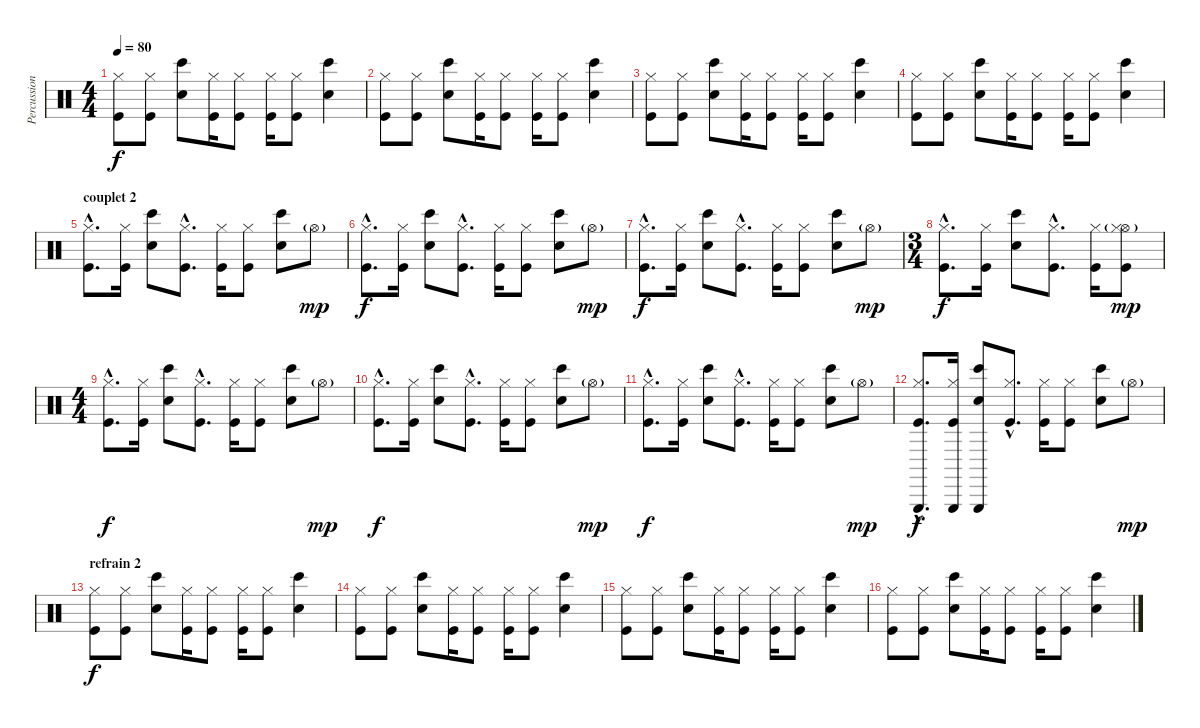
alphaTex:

\track ("Percussions" "Percussion") {instrument percussion}
\staff {score}
\articulation defaults
\ts (4 4)
\tempo 80
\clef neutral
\ks c
("Hi-Hat (closed)" "Kick (hit)").8{dy f} ("Hi-Hat (closed)" "Kick (hit)").8 ("Electric Snare (hit)" "Bongo High (hit)").8 ("Hi-Hat (closed)" "Kick (hit)").16 ("Hi-Hat (closed)" "Kick (hit)").8 ("Hi-Hat (closed)" "Kick (hit)").16 ("Hi-Hat (closed)" "Kick (hit)").8 ("Electric Snare (hit)" "Bongo High (hit)").4 |
("Hi-Hat (closed)" "Kick (hit)").8 ("Hi-Hat (closed)" "Kick (hit)").8 ("Electric Snare (hit)" "Bongo High (hit)").8 ("Hi-Hat (closed)" "Kick (hit)").16 ("Hi-Hat (closed)" "Kick (hit)").8 ("Hi-Hat (closed)" "Kick (hit)").16 ("Hi-Hat (closed)" "Kick (hit)").8 ("Electric Snare (hit)" "Bongo High (hit)").4 |
("Hi-Hat (closed)" "Kick (hit)").8 ("Hi-Hat (closed)" "Kick (hit)").8 ("Electric Snare (hit)" "Bongo High (hit)").8 ("Hi-Hat (closed)" "Kick (hit)").16 ("Hi-Hat (closed)" "Kick (hit)").8 ("Hi-Hat (closed)" "Kick (hit)").16 ("Hi-Hat (closed)" "Kick (hit)").8 ("Electric Snare (hit)" "Bongo High (hit)").4 |
("Hi-Hat (closed)" "Kick (hit)").8 ("Hi-Hat (closed)" "Kick (hit)").8 ("Electric Snare (hit)" "Bongo High (hit)").8 ("Hi-Hat (closed)" "Kick (hit)").16 ("Hi-Hat (closed)" "Kick (hit)").8 ("Hi-Hat (closed)" "Kick (hit)").16 ("Hi-Hat (closed)" "Kick (hit)").8 ("Electric Snare (hit)" "Bongo High (hit)").4 |
\section ("" "couplet 2")
("Hi-Hat (closed)"{hac} "Kick (hit)"{hac}).8{d} ("Hi-Hat (closed)" "Kick (hit)").16 ("Electric Snare (hit)" "Bongo High (hit)").8 ("Hi-Hat (closed)"{hac} "Kick (hit)"{hac}).8{d} ("Hi-Hat (closed)" "Kick (hit)").16 ("Hi-Hat (closed)" "Kick (hit)").8 ("Electric Snare (hit)" "Bongo High (hit)").8 "Hi-Hat (open)"{g}.8{dy mp} |
("Hi-Hat (closed)"{hac} "Kick (hit)"{hac}).8{d dy f} ("Hi-Hat (closed)" "Kick (hit)").16 ("Electric Snare (hit)" "Bongo High (hit)").8 ("Hi-Hat (closed)"{hac} "Kick (hit)"{hac}).8{d} ("Hi-Hat (closed)" "Kick (hit)").16 ("Hi-Hat (closed)" "Kick (hit)").8 ("Electric Snare (hit)" "Bongo High (hit)").8 "Hi-Hat (open)"{g}.8{dy mp} |
("Hi-Hat (closed)"{hac} "Kick (hit)"{hac}).8{d dy f} ("Hi-Hat (closed)" "Kick (hit)").16 ("Electric Snare (hit)" "Bongo High (hit)").8 ("Hi-Hat (closed)"{hac} "Kick (hit)"{hac}).8{d} ("Hi-Hat (closed)" "Kick (hit)").16 ("Hi-Hat (closed)" "Kick (hit)").8 ("Electric Snare (hit)" "Bongo High (hit)").8 "Hi-Hat (open)"{g}.8{dy mp} |
\ts (3 4)
("Hi-Hat (closed)"{hac} "Kick (hit)"{hac}).8{d dy f} ("Hi-Hat (closed)" "Kick (hit)").16 ("Electric Snare (hit)" "Bongo High (hit)").8 ("Hi-Hat (closed)"{hac} "Kick (hit)"{hac}).8{d} ("Hi-Hat (closed)" "Kick (hit)").16 ("Hi-Hat (open)"{g} "Hi-Hat (closed)" "Kick (hit)").8{dy mp} |
\ts (4 4)
("Hi-Hat (closed)"{hac} "Kick (hit)"{hac}).8{d dy f} ("Hi-Hat (closed)" "Kick (hit)").16 ("Electric Snare (hit)" "Bongo High (hit)").8 ("Hi-Hat (closed)"{hac} "Kick (hit)"{hac}).8{d} ("Hi-Hat (closed)" "Kick (hit)").16 ("Hi-Hat (closed)" "Kick (hit)").8 ("Electric Snare (hit)" "Bongo High (hit)").8 "Hi-Hat (open)"{g}.8{dy mp} |
("Hi-Hat (closed)"{hac} "Kick (hit)"{hac}).8{d dy f} ("Hi-Hat (closed)" "Kick (hit)").16 ("Electric Snare (hit)" "Bongo High (hit)").8 ("Hi-Hat (closed)"{hac} "Kick (hit)"{hac}).8{d} ("Hi-Hat (closed)" "Kick (hit)").16 ("Hi-Hat (closed)" "Kick (hit)").8 ("Electric Snare (hit)" "Bongo High (hit)").8 "Hi-Hat (open)"{g}.8{dy mp} |
("Hi-Hat (closed)"{hac} "Kick (hit)"{hac}).8{d dy f} ("Hi-Hat (closed)" "Kick (hit)").16 ("Electric Snare (hit)" "Bongo High (hit)").8 ("Hi-Hat (closed)"{hac} "Kick (hit)"{hac}).8{d} ("Hi-Hat (closed)" "Kick (hit)").16 ("Hi-Hat (closed)" "Kick (hit)").8 ("Electric Snare (hit)" "Bongo High (hit)").8 "Hi-Hat (open)"{g}.8{dy mp} |
("Triangle (hit)"{hac} "Hi-Hat (closed)"{hac} "Kick (hit)"{hac}).8{d dy f} ("Triangle (hit)" "Hi-Hat (closed)" "Kick (hit)").16 ("Triangle (hit)" "Electric Snare (hit)" "Bongo High (hit)").8 ("Hi-Hat (closed)"{hac} "Kick (hit)"{hac}).8{d} ("Hi-Hat (closed)" "Kick (hit)").16 ("Hi-Hat (closed)" "Kick (hit)").8 ("Electric Snare (hit)" "Bongo High (hit)").8 "Hi-Hat (open)"{g}.8{dy mp} |
\section ("" "refrain 2")
("Hi-Hat (closed)" "Kick (hit)").8{dy f} ("Hi-Hat (closed)" "Kick (hit)").8 ("Electric Snare (hit)" "Bongo High (hit)").8 ("Hi-Hat (closed)" "Kick (hit)").16 ("Hi-Hat (closed)" "Kick (hit)").8 ("Hi-Hat (closed)" "Kick (hit)").16 ("Hi-Hat (closed)" "Kick (hit)").8 ("Electric Snare (hit)" "Bongo High (hit)").4 |
("Hi-Hat (closed)" "Kick (hit)").8 ("Hi-Hat (closed)" "Kick (hit)").8 ("Electric Snare (hit)" "Bongo High (hit)").8 ("Hi-Hat (closed)" "Kick (hit)").16 ("Hi-Hat (closed)" "Kick (hit)").8 ("Hi-Hat (closed)" "Kick (hit)").16 ("Hi-Hat (closed)" "Kick (hit)").8 ("Electric Snare (hit)" "Bongo High (hit)").4 |
("Hi-Hat (closed)" "Kick (hit)").8 ("Hi-Hat (closed)" "Kick (hit)").8 ("Electric Snare (hit)" "Bongo High (hit)").8 ("Hi-Hat (closed)" "Kick (hit)").16 ("Hi-Hat (closed)" "Kick (hit)").8 ("Hi-Hat (closed)" "Kick (hit)").16 ("Hi-Hat (closed)" "Kick (hit)").8 ("Electric Snare (hit)" "Bongo High (hit)").4 |
("Hi-Hat (closed)" "Kick (hit)").8 ("Hi-Hat (closed)" "Kick (hit)").8 ("Electric Snare (hit)" "Bongo High (hit)").8 ("Hi-Hat (closed)" "Kick (hit)").16 ("Hi-Hat (closed)" "Kick (hit)").8 ("Hi-Hat (closed)" "Kick (hit)").16 ("Hi-Hat (closed)" "Kick (hit)").8 ("Electric Snare (hit)" "Bongo High (hit)").4
